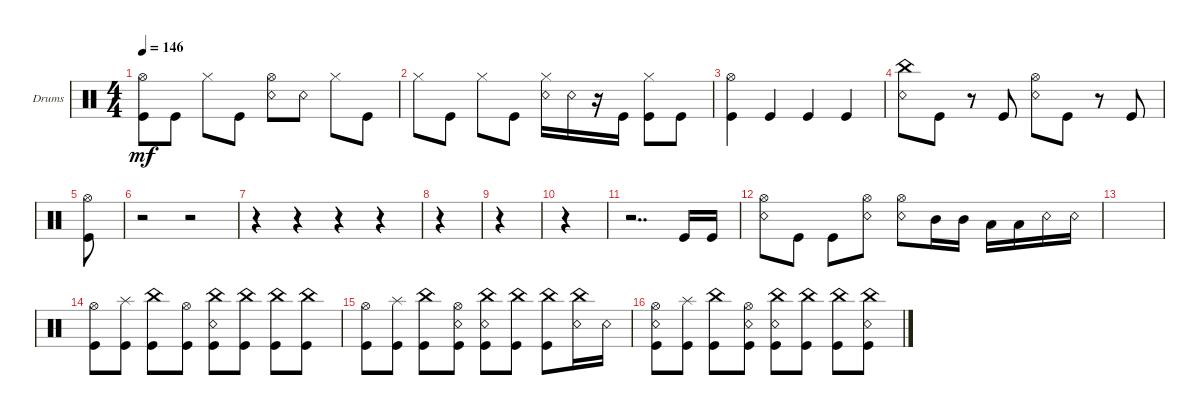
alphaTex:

\defaultSystemsLayout 4
\bracketExtendMode groupsimilarinstruments
\firstSystemTrackNameOrientation horizontal
\otherSystemsTrackNameOrientation horizontal
\track ("Drums" "Drums") {instrument percussion}
\staff {score}
\articulation defaults
\ts (4 4)
\tempo 146
\clef neutral
\ks c
("Hi-Hat (open)" "Kick (hit)").8{dy mf} "Kick (hit)".8 "Hi-Hat (closed)".8 "Kick (hit)".8 ("Hi-Hat (open)" "Snare (rim shot)").8 "Snare (rim shot)".8 "Hi-Hat (closed)".8 "Kick (hit)".8 |
"Hi-Hat (closed)".8 "Kick (hit)".8 "Hi-Hat (closed)".8 "Kick (hit)".8 ("Snare (rim shot)" "Hi-Hat (closed)").16 "Snare (rim shot)".16 r.16 "Kick (hit)".16 ("Hi-Hat (closed)" "Kick (hit)").8 "Kick (hit)".8 |
("Hi-Hat (open)" "Kick (hit)").4 "Kick (hit)".4 "Kick (hit)".4 "Kick (hit)".4 |
("Snare (rim shot)" "China (hit)").8 "Kick (hit)".8 r.8 "Kick (hit)".8 ("Snare (rim shot)" "Hi-Hat (open)").8 "Kick (hit)".8 r.8 "Kick (hit)".8 |
("Kick (hit)" "Hi-Hat (open)").8 |
r.2 r.2 |
r.4 r.4 r.4 r.4 |
r.4 |
r.4 |
r.4 |
r.2{dd} "Kick (hit)".16 "Kick (hit)".16 |
("Snare (rim shot)" "Hi-Hat (open)").8 "Kick (hit)".8 "Kick (hit)".8 ("Snare (rim shot)" "Hi-Hat (open)").8 ("Hi-Hat (open)" "Snare (rim shot)").8 "Mid Tom (hit)".16 "Mid Tom (hit)".16 "Low Tom (hit)".16 "Low Tom (hit)".16 "Snare (rim shot)".16 "Snare (rim shot)".16 |
|
("Kick (hit)" "Hi-Hat (open)").8 ("Kick (hit)" "Splash (hit)").8 ("Kick (hit)" "China (hit)").8 ("Kick (hit)" "Hi-Hat (open)").8 ("Snare (rim shot)" "Kick (hit)" "China (hit)").8 ("Kick (hit)" "China (hit)").8 ("Kick (hit)" "China (hit)").8 ("Kick (hit)" "China (hit)").8 |
("Kick (hit)" "Hi-Hat (open)").8 ("Kick (hit)" "Splash (hit)").8 ("Kick (hit)" "China (hit)").8 ("Kick (hit)" "Hi-Hat (open)" "Snare (rim shot)").8 ("Snare (rim shot)" "Kick (hit)" "China (hit)").8 ("Kick (hit)" "China (hit)").8 ("Kick (hit)" "China (hit)").8 ("China (hit)" "Snare (rim shot)").16 "Snare (rim shot)".16 |
("Kick (hit)" "Hi-Hat (open)" "Snare (rim shot)").8 ("Kick (hit)" "Splash (hit)").8 ("Kick (hit)" "China (hit)").8 ("Kick (hit)" "Hi-Hat (open)" "Snare (rim shot)").8 ("Snare (rim shot)" "Kick (hit)" "China (hit)").8 ("Kick (hit)" "China (hit)").8 ("Kick (hit)" "China (hit)").8 ("Kick (hit)" "China (hit)" "Snare (rim shot)").8
